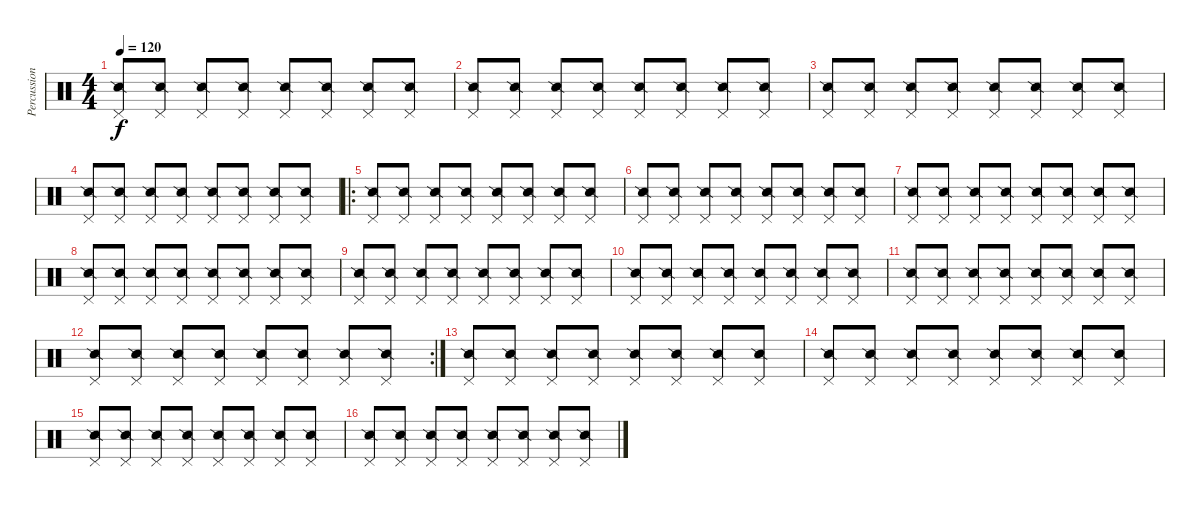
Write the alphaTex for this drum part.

\track ("Percussion" "Percussion") {instrument percussion}
\staff {score}
\articulation defaults
\ts (4 4)
\tempo 120
\clef neutral
\ks c
("Pedal Hi-Hat (hit)" "Snare (side stick) 2").8{dy f} ("Pedal Hi-Hat (hit)" "Snare (side stick) 2").8 ("Pedal Hi-Hat (hit)" "Snare (side stick) 2").8 ("Pedal Hi-Hat (hit)" "Snare (side stick) 2").8 ("Pedal Hi-Hat (hit)" "Snare (side stick) 2").8 ("Pedal Hi-Hat (hit)" "Snare (side stick) 2").8 ("Pedal Hi-Hat (hit)" "Snare (side stick) 2").8 ("Pedal Hi-Hat (hit)" "Snare (side stick) 2").8 |
("Pedal Hi-Hat (hit)" "Snare (side stick) 2").8 ("Pedal Hi-Hat (hit)" "Snare (side stick) 2").8 ("Pedal Hi-Hat (hit)" "Snare (side stick) 2").8 ("Pedal Hi-Hat (hit)" "Snare (side stick) 2").8 ("Pedal Hi-Hat (hit)" "Snare (side stick) 2").8 ("Pedal Hi-Hat (hit)" "Snare (side stick) 2").8 ("Pedal Hi-Hat (hit)" "Snare (side stick) 2").8 ("Pedal Hi-Hat (hit)" "Snare (side stick) 2").8 |
("Pedal Hi-Hat (hit)" "Snare (side stick) 2").8 ("Pedal Hi-Hat (hit)" "Snare (side stick) 2").8 ("Pedal Hi-Hat (hit)" "Snare (side stick) 2").8 ("Pedal Hi-Hat (hit)" "Snare (side stick) 2").8 ("Pedal Hi-Hat (hit)" "Snare (side stick) 2").8 ("Pedal Hi-Hat (hit)" "Snare (side stick) 2").8 ("Pedal Hi-Hat (hit)" "Snare (side stick) 2").8 ("Pedal Hi-Hat (hit)" "Snare (side stick) 2").8 |
("Pedal Hi-Hat (hit)" "Snare (side stick) 2").8 ("Pedal Hi-Hat (hit)" "Snare (side stick) 2").8 ("Pedal Hi-Hat (hit)" "Snare (side stick) 2").8 ("Pedal Hi-Hat (hit)" "Snare (side stick) 2").8 ("Pedal Hi-Hat (hit)" "Snare (side stick) 2").8 ("Pedal Hi-Hat (hit)" "Snare (side stick) 2").8 ("Pedal Hi-Hat (hit)" "Snare (side stick) 2").8 ("Pedal Hi-Hat (hit)" "Snare (side stick) 2").8 |
\ro
("Pedal Hi-Hat (hit)" "Snare (side stick) 2").8 ("Pedal Hi-Hat (hit)" "Snare (side stick) 2").8 ("Pedal Hi-Hat (hit)" "Snare (side stick) 2").8 ("Pedal Hi-Hat (hit)" "Snare (side stick) 2").8 ("Pedal Hi-Hat (hit)" "Snare (side stick) 2").8 ("Pedal Hi-Hat (hit)" "Snare (side stick) 2").8 ("Pedal Hi-Hat (hit)" "Snare (side stick) 2").8 ("Pedal Hi-Hat (hit)" "Snare (side stick) 2").8 |
("Pedal Hi-Hat (hit)" "Snare (side stick) 2").8 ("Pedal Hi-Hat (hit)" "Snare (side stick) 2").8 ("Pedal Hi-Hat (hit)" "Snare (side stick) 2").8 ("Pedal Hi-Hat (hit)" "Snare (side stick) 2").8 ("Pedal Hi-Hat (hit)" "Snare (side stick) 2").8 ("Pedal Hi-Hat (hit)" "Snare (side stick) 2").8 ("Pedal Hi-Hat (hit)" "Snare (side stick) 2").8 ("Pedal Hi-Hat (hit)" "Snare (side stick) 2").8 |
("Pedal Hi-Hat (hit)" "Snare (side stick) 2").8 ("Pedal Hi-Hat (hit)" "Snare (side stick) 2").8 ("Pedal Hi-Hat (hit)" "Snare (side stick) 2").8 ("Pedal Hi-Hat (hit)" "Snare (side stick) 2").8 ("Pedal Hi-Hat (hit)" "Snare (side stick) 2").8 ("Pedal Hi-Hat (hit)" "Snare (side stick) 2").8 ("Pedal Hi-Hat (hit)" "Snare (side stick) 2").8 ("Pedal Hi-Hat (hit)" "Snare (side stick) 2").8 |
("Pedal Hi-Hat (hit)" "Snare (side stick) 2").8 ("Pedal Hi-Hat (hit)" "Snare (side stick) 2").8 ("Pedal Hi-Hat (hit)" "Snare (side stick) 2").8 ("Pedal Hi-Hat (hit)" "Snare (side stick) 2").8 ("Pedal Hi-Hat (hit)" "Snare (side stick) 2").8 ("Pedal Hi-Hat (hit)" "Snare (side stick) 2").8 ("Pedal Hi-Hat (hit)" "Snare (side stick) 2").8 ("Pedal Hi-Hat (hit)" "Snare (side stick) 2").8 |
("Pedal Hi-Hat (hit)" "Snare (side stick) 2").8 ("Pedal Hi-Hat (hit)" "Snare (side stick) 2").8 ("Pedal Hi-Hat (hit)" "Snare (side stick) 2").8 ("Pedal Hi-Hat (hit)" "Snare (side stick) 2").8 ("Pedal Hi-Hat (hit)" "Snare (side stick) 2").8 ("Pedal Hi-Hat (hit)" "Snare (side stick) 2").8 ("Pedal Hi-Hat (hit)" "Snare (side stick) 2").8 ("Pedal Hi-Hat (hit)" "Snare (side stick) 2").8 |
("Pedal Hi-Hat (hit)" "Snare (side stick) 2").8 ("Pedal Hi-Hat (hit)" "Snare (side stick) 2").8 ("Pedal Hi-Hat (hit)" "Snare (side stick) 2").8 ("Pedal Hi-Hat (hit)" "Snare (side stick) 2").8 ("Pedal Hi-Hat (hit)" "Snare (side stick) 2").8 ("Pedal Hi-Hat (hit)" "Snare (side stick) 2").8 ("Pedal Hi-Hat (hit)" "Snare (side stick) 2").8 ("Pedal Hi-Hat (hit)" "Snare (side stick) 2").8 |
("Pedal Hi-Hat (hit)" "Snare (side stick) 2").8 ("Pedal Hi-Hat (hit)" "Snare (side stick) 2").8 ("Pedal Hi-Hat (hit)" "Snare (side stick) 2").8 ("Pedal Hi-Hat (hit)" "Snare (side stick) 2").8 ("Pedal Hi-Hat (hit)" "Snare (side stick) 2").8 ("Pedal Hi-Hat (hit)" "Snare (side stick) 2").8 ("Pedal Hi-Hat (hit)" "Snare (side stick) 2").8 ("Pedal Hi-Hat (hit)" "Snare (side stick) 2").8 |
\rc 2
("Pedal Hi-Hat (hit)" "Snare (side stick) 2").8 ("Pedal Hi-Hat (hit)" "Snare (side stick) 2").8 ("Pedal Hi-Hat (hit)" "Snare (side stick) 2").8 ("Pedal Hi-Hat (hit)" "Snare (side stick) 2").8 ("Pedal Hi-Hat (hit)" "Snare (side stick) 2").8 ("Pedal Hi-Hat (hit)" "Snare (side stick) 2").8 ("Pedal Hi-Hat (hit)" "Snare (side stick) 2").8 ("Pedal Hi-Hat (hit)" "Snare (side stick) 2").8 |
("Pedal Hi-Hat (hit)" "Snare (side stick) 2").8 ("Pedal Hi-Hat (hit)" "Snare (side stick) 2").8 ("Pedal Hi-Hat (hit)" "Snare (side stick) 2").8 ("Pedal Hi-Hat (hit)" "Snare (side stick) 2").8 ("Pedal Hi-Hat (hit)" "Snare (side stick) 2").8 ("Pedal Hi-Hat (hit)" "Snare (side stick) 2").8 ("Pedal Hi-Hat (hit)" "Snare (side stick) 2").8 ("Pedal Hi-Hat (hit)" "Snare (side stick) 2").8 |
("Pedal Hi-Hat (hit)" "Snare (side stick) 2").8 ("Pedal Hi-Hat (hit)" "Snare (side stick) 2").8 ("Pedal Hi-Hat (hit)" "Snare (side stick) 2").8 ("Pedal Hi-Hat (hit)" "Snare (side stick) 2").8 ("Pedal Hi-Hat (hit)" "Snare (side stick) 2").8 ("Pedal Hi-Hat (hit)" "Snare (side stick) 2").8 ("Pedal Hi-Hat (hit)" "Snare (side stick) 2").8 ("Pedal Hi-Hat (hit)" "Snare (side stick) 2").8 |
("Pedal Hi-Hat (hit)" "Snare (side stick) 2").8 ("Pedal Hi-Hat (hit)" "Snare (side stick) 2").8 ("Pedal Hi-Hat (hit)" "Snare (side stick) 2").8 ("Pedal Hi-Hat (hit)" "Snare (side stick) 2").8 ("Pedal Hi-Hat (hit)" "Snare (side stick) 2").8 ("Pedal Hi-Hat (hit)" "Snare (side stick) 2").8 ("Pedal Hi-Hat (hit)" "Snare (side stick) 2").8 ("Pedal Hi-Hat (hit)" "Snare (side stick) 2").8 |
("Pedal Hi-Hat (hit)" "Snare (side stick) 2").8 ("Pedal Hi-Hat (hit)" "Snare (side stick) 2").8 ("Pedal Hi-Hat (hit)" "Snare (side stick) 2").8 ("Pedal Hi-Hat (hit)" "Snare (side stick) 2").8 ("Pedal Hi-Hat (hit)" "Snare (side stick) 2").8 ("Pedal Hi-Hat (hit)" "Snare (side stick) 2").8 ("Pedal Hi-Hat (hit)" "Snare (side stick) 2").8 ("Pedal Hi-Hat (hit)" "Snare (side stick) 2").8
